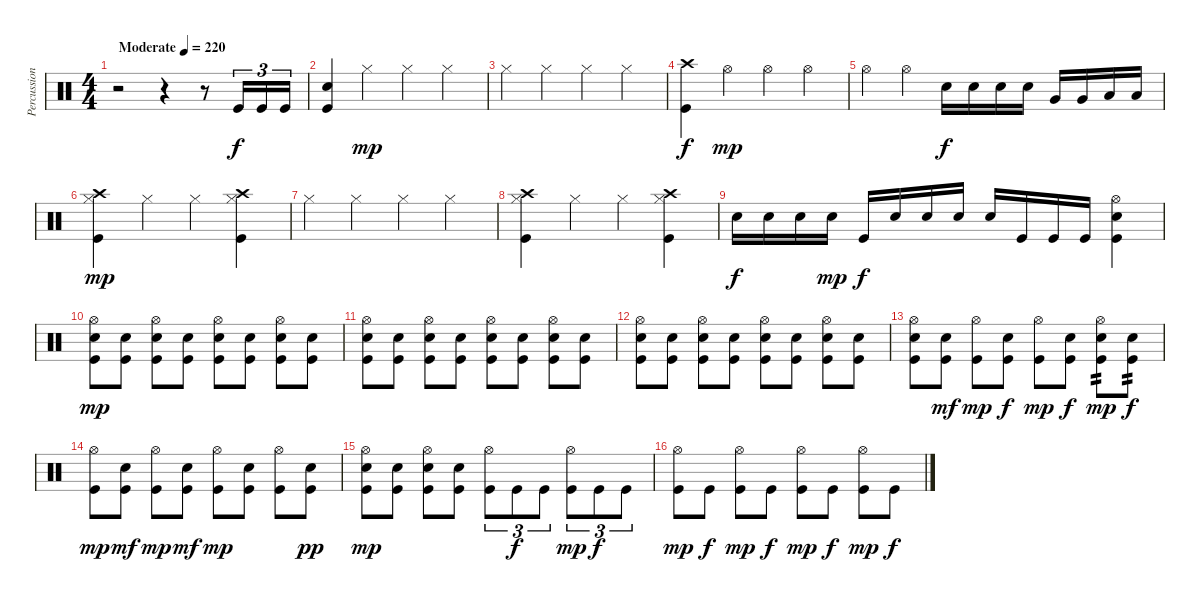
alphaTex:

\track ("Percussion" "Percussion") {instrument percussion}
\staff {score}
\articulation defaults
\ts (4 4)
\tempo (220 "Moderate")
\clef neutral
\ks c
r.2{dy f} r.4 r.8 "Kick (hit)".16{tu (3 2)} "Kick (hit)".16{tu (3 2)} "Kick (hit)".16{tu (3 2)} |
("Electric Snare (hit)" "Kick (hit)").4 "Hi-Hat (closed)".4{dy mp} "Hi-Hat (closed)".4 "Hi-Hat (closed)".4 |
"Hi-Hat (closed)".4 "Hi-Hat (closed)".4 "Hi-Hat (closed)".4 "Hi-Hat (closed)".4 |
("Crash high (hit)" "Kick (hit)").4{dy f} "Hi-Hat (open)".4{dy mp} "Hi-Hat (open)".4 "Hi-Hat (open)".4 |
"Hi-Hat (open)".4 "Hi-Hat (open)".4 "Electric Snare (hit)".16{dy f} "Electric Snare (hit)".16 "Electric Snare (hit)".16 "Electric Snare (hit)".16 "Very Low Tom (hit)".16 "Very Low Tom (hit)".16 "Low Floor Tom (hit)".16 "Low Floor Tom (hit)".16 |
("Crash high (hit)" "Hi-Hat (closed)" "Kick (hit)").4{dy mp} "Hi-Hat (closed)".4 "Hi-Hat (closed)".4 ("Crash high (hit)" "Hi-Hat (closed)" "Kick (hit)").4 |
"Hi-Hat (closed)".4 "Hi-Hat (closed)".4 "Hi-Hat (closed)".4 "Hi-Hat (closed)".4 |
("Crash high (hit)" "Hi-Hat (closed)" "Kick (hit)").4 "Hi-Hat (closed)".4 "Hi-Hat (closed)".4 ("Crash high (hit)" "Hi-Hat (closed)" "Kick (hit)").4 |
"Electric Snare (hit)".16{dy f} "Electric Snare (hit)".16 "Electric Snare (hit)".16 "Electric Snare (hit)".16{dy mp} "Kick (hit)".16{dy f} "Electric Snare (hit)".16 "Electric Snare (hit)".16 "Electric Snare (hit)".16 "Electric Snare (hit)".16 "Kick (hit)".16 "Kick (hit)".16 "Kick (hit)".16 ("Hi-Hat (open)" "Electric Snare (hit)" "Kick (hit)").4 |
("Hi-Hat (open)" "Electric Snare (hit)" "Kick (hit)").8{dy mp} ("Electric Snare (hit)" "Kick (hit)").8 ("Hi-Hat (open)" "Electric Snare (hit)" "Kick (hit)").8 ("Electric Snare (hit)" "Kick (hit)").8 ("Hi-Hat (open)" "Electric Snare (hit)" "Kick (hit)").8 ("Electric Snare (hit)" "Kick (hit)").8 ("Hi-Hat (open)" "Electric Snare (hit)" "Kick (hit)").8 ("Electric Snare (hit)" "Kick (hit)").8 |
("Hi-Hat (open)" "Electric Snare (hit)" "Kick (hit)").8 ("Electric Snare (hit)" "Kick (hit)").8 ("Hi-Hat (open)" "Electric Snare (hit)" "Kick (hit)").8 ("Electric Snare (hit)" "Kick (hit)").8 ("Hi-Hat (open)" "Electric Snare (hit)" "Kick (hit)").8 ("Electric Snare (hit)" "Kick (hit)").8 ("Hi-Hat (open)" "Electric Snare (hit)" "Kick (hit)").8 ("Electric Snare (hit)" "Kick (hit)").8 |
("Hi-Hat (open)" "Electric Snare (hit)" "Kick (hit)").8 ("Electric Snare (hit)" "Kick (hit)").8 ("Hi-Hat (open)" "Electric Snare (hit)" "Kick (hit)").8 ("Electric Snare (hit)" "Kick (hit)").8 ("Hi-Hat (open)" "Electric Snare (hit)" "Kick (hit)").8 ("Electric Snare (hit)" "Kick (hit)").8 ("Hi-Hat (open)" "Electric Snare (hit)" "Kick (hit)").8 ("Electric Snare (hit)" "Kick (hit)").8 |
("Hi-Hat (open)" "Electric Snare (hit)" "Kick (hit)").8 ("Electric Snare (hit)" "Kick (hit)").8{dy mf} ("Hi-Hat (open)" "Kick (hit)").8{dy mp} ("Electric Snare (hit)" "Kick (hit)").8{dy f} ("Hi-Hat (open)" "Kick (hit)").8{dy mp} ("Electric Snare (hit)" "Kick (hit)").8{dy f} ("Hi-Hat (open)" "Electric Snare (hit)" "Kick (hit)").8{tp 2 dy mp} ("Electric Snare (hit)" "Kick (hit)").8{tp 2 dy f} |
("Hi-Hat (open)" "Kick (hit)").8{dy mp} ("Electric Snare (hit)" "Kick (hit)").8{dy mf} ("Hi-Hat (open)" "Kick (hit)").8{dy mp} ("Electric Snare (hit)" "Kick (hit)").8{dy mf} ("Hi-Hat (open)" "Kick (hit)").8{dy mp} ("Electric Snare (hit)" "Kick (hit)").8 ("Hi-Hat (open)" "Kick (hit)").8 ("Electric Snare (hit)" "Kick (hit)").8{dy pp} |
("Hi-Hat (open)" "Electric Snare (hit)" "Kick (hit)").8{dy mp} ("Electric Snare (hit)" "Kick (hit)").8 ("Hi-Hat (open)" "Electric Snare (hit)" "Kick (hit)").8 ("Electric Snare (hit)" "Kick (hit)").8 ("Hi-Hat (open)" "Kick (hit)").8{tu (3 2)} "Kick (hit)".8{tu (3 2) dy f} "Kick (hit)".8{tu (3 2)} ("Hi-Hat (open)" "Kick (hit)").8{tu (3 2) dy mp} "Kick (hit)".8{tu (3 2) dy f} "Kick (hit)".8{tu (3 2)} |
("Hi-Hat (open)" "Kick (hit)").8{dy mp} "Kick (hit)".8{dy f} ("Hi-Hat (open)" "Kick (hit)").8{dy mp} "Kick (hit)".8{dy f} ("Hi-Hat (open)" "Kick (hit)").8{dy mp} "Kick (hit)".8{dy f} ("Hi-Hat (open)" "Kick (hit)").8{dy mp} "Kick (hit)".8{dy f}
